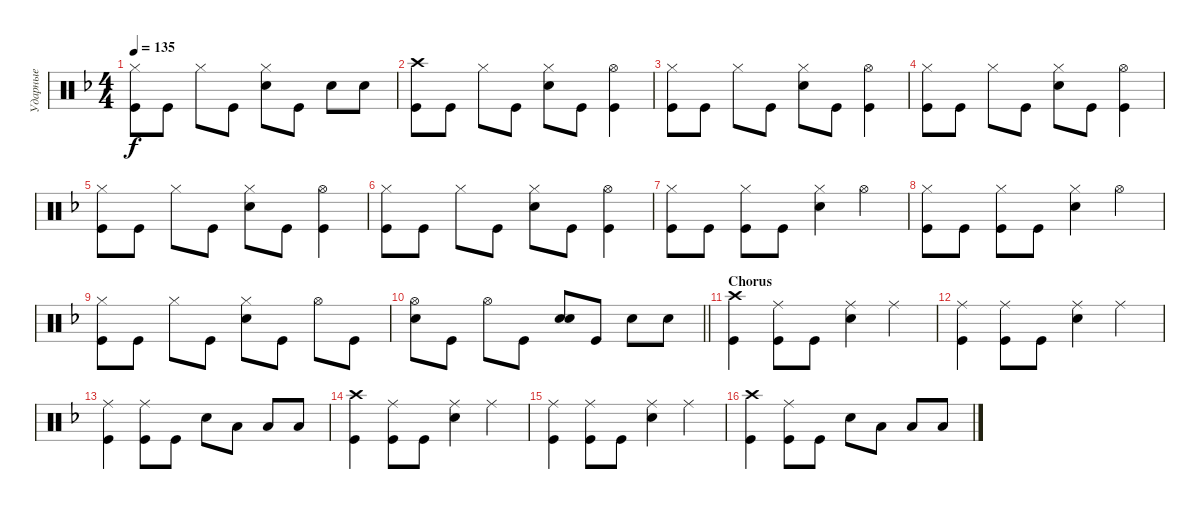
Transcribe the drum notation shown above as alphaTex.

\track ("Ударные" "Ударные") {instrument percussion}
\staff {score}
\articulation defaults
\ts (4 4)
\tempo 135
\clef neutral
\ks dminor
("Kick (hit)" "Hi-Hat (closed)").8{dy f} "Kick (hit)".8 "Hi-Hat (closed)".8 "Kick (hit)".8 ("Snare (hit) 2" "Hi-Hat (closed)").8 "Kick (hit)".8 "Snare (hit) 2".8 "Snare (hit) 2".8 |
("Kick (hit)" "Crash high (hit)").8 "Kick (hit)".8 "Hi-Hat (closed)".8 "Kick (hit)".8 ("Snare (hit) 2" "Hi-Hat (closed)").8 "Kick (hit)".8 ("Kick (hit)" "Hi-Hat (open)").4 |
("Kick (hit)" "Hi-Hat (closed)").8 "Kick (hit)".8 "Hi-Hat (closed)".8 "Kick (hit)".8 ("Snare (hit) 2" "Hi-Hat (closed)").8 "Kick (hit)".8 ("Kick (hit)" "Hi-Hat (open)").4 |
("Kick (hit)" "Hi-Hat (closed)").8 "Kick (hit)".8 "Hi-Hat (closed)".8 "Kick (hit)".8 ("Snare (hit) 2" "Hi-Hat (closed)").8 "Kick (hit)".8 ("Kick (hit)" "Hi-Hat (open)").4 |
("Kick (hit)" "Hi-Hat (closed)").8 "Kick (hit)".8 "Hi-Hat (closed)".8 "Kick (hit)".8 ("Snare (hit) 2" "Hi-Hat (closed)").8 "Kick (hit)".8 ("Kick (hit)" "Hi-Hat (open)").4 |
("Kick (hit)" "Hi-Hat (closed)").8 "Kick (hit)".8 "Hi-Hat (closed)".8 "Kick (hit)".8 ("Snare (hit) 2" "Hi-Hat (closed)").8 "Kick (hit)".8 ("Kick (hit)" "Hi-Hat (open)").4 |
("Kick (hit)" "Hi-Hat (closed)").8 "Kick (hit)".8 ("Hi-Hat (closed)" "Kick (hit)").8 "Kick (hit)".8 ("Snare (hit) 2" "Hi-Hat (closed)").4 "Hi-Hat (open)".4 |
("Kick (hit)" "Hi-Hat (closed)").8 "Kick (hit)".8 ("Hi-Hat (closed)" "Kick (hit)").8 "Kick (hit)".8 ("Snare (hit) 2" "Hi-Hat (closed)").4 "Hi-Hat (open)".4 |
("Kick (hit)" "Hi-Hat (closed)").8 "Kick (hit)".8 "Hi-Hat (closed)".8 "Kick (hit)".8 ("Snare (hit) 2" "Hi-Hat (closed)").8 "Kick (hit)".8 "Hi-Hat (open)".8 "Kick (hit)".8 |
\barLineRight lightlight
("Snare (hit) 2" "Hi-Hat (open)").8 "Kick (hit)".8 "Hi-Hat (open)".8 "Kick (hit)".8 ("Snare (hit) 2" "Snare (hit) 2").8{bd 240} "Kick (hit)".8 "Snare (hit) 2".8 "Snare (hit) 2".8 |
\section ("" "Chorus")
("Kick (hit)" "Crash high (hit)").4 ("Kick (hit)" "Ride (middle)").8 "Kick (hit)".8 ("Snare (hit) 2" "Ride (middle)").4 "Ride (middle)".4 |
("Kick (hit)" "Ride (middle)").4 ("Kick (hit)" "Ride (middle)").8 "Kick (hit)".8 ("Snare (hit) 2" "Ride (middle)").4 "Ride (middle)".4 |
("Kick (hit)" "Ride (middle)").4 ("Kick (hit)" "Ride (middle)").8 "Kick (hit)".8 "Snare (hit) 2".8 "Low Tom (hit)".8 "Low Tom (hit)".8 "Low Tom (hit)".8 |
("Kick (hit)" "Crash high (hit)").4 ("Kick (hit)" "Ride (middle)").8 "Kick (hit)".8 ("Snare (hit) 2" "Ride (middle)").4 "Ride (middle)".4 |
("Kick (hit)" "Ride (middle)").4 ("Kick (hit)" "Ride (middle)").8 "Kick (hit)".8 ("Snare (hit) 2" "Ride (middle)").4 "Ride (middle)".4 |
("Kick (hit)" "Crash high (hit)").4 ("Kick (hit)" "Ride (middle)").8 "Kick (hit)".8 "Snare (hit) 2".8 "Low Tom (hit)".8 "Low Tom (hit)".8 "Low Tom (hit)".8
